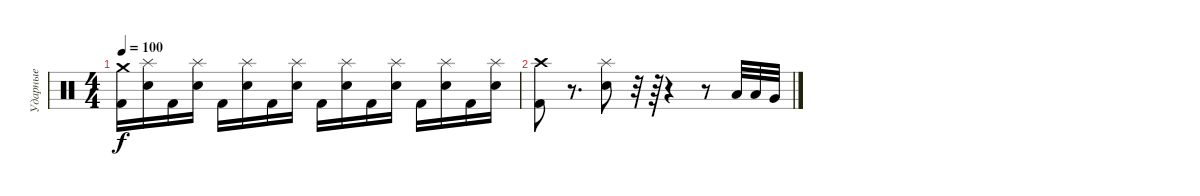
\track ("Ударные" "Ударные") {instrument percussion}
\staff {score}
\articulation defaults
\ts (4 4)
\tempo 100
\clef neutral
\ks c
("Crash medium (hit)" "Kick (hit) 2").16{dy f} ("Splash (hit)" "Electric Snare (hit)").16 "Kick (hit) 2".16 ("Splash (hit)" "Electric Snare (hit)").16 "Kick (hit) 2".16 ("Splash (hit)" "Electric Snare (hit)").16 "Kick (hit) 2".16 ("Splash (hit)" "Electric Snare (hit)").16 "Kick (hit) 2".16 ("Splash (hit)" "Electric Snare (hit)").16 "Kick (hit) 2".16 ("Splash (hit)" "Electric Snare (hit)").16 "Kick (hit) 2".16 ("Splash (hit)" "Electric Snare (hit)").16 "Kick (hit) 2".16 ("Splash (hit)" "Electric Snare (hit)").16 |
("Crash high (hit)" "Kick (hit) 2").8 r.8{d} ("Splash (hit)" "Electric Snare (hit)").8 r.32 r.64 r.4 r.8 "Low Tom (hit)".32 "Low Floor Tom (hit)".32 "Very Low Tom (hit)".32
